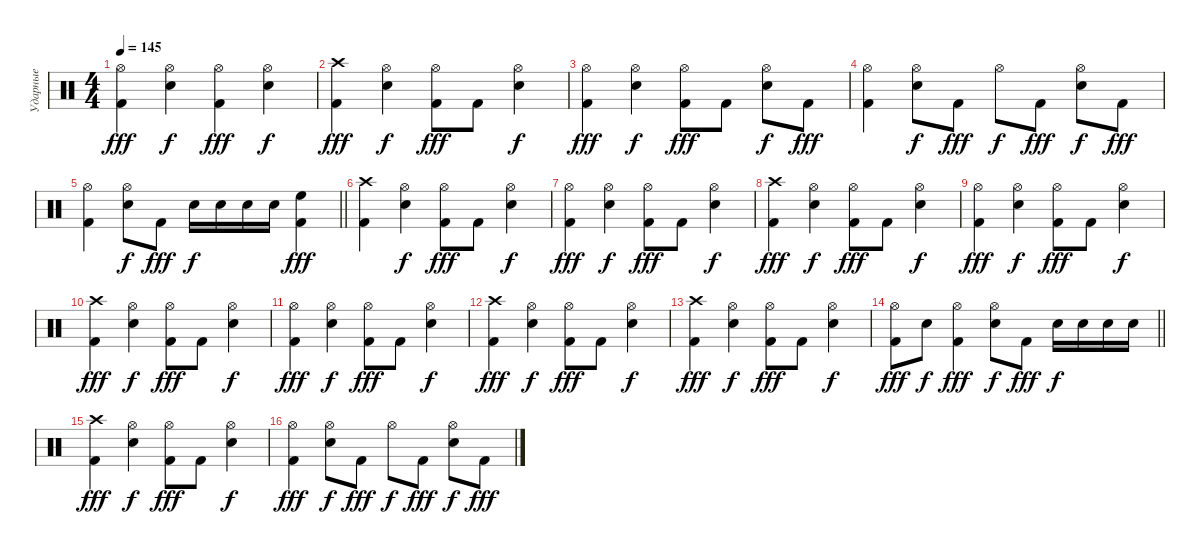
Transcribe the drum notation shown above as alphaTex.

\track ("Ударные" "Ударные") {instrument percussion}
\staff {score}
\articulation defaults
\ts (4 4)
\tempo 145
\clef neutral
\ks c
("Kick (hit) 2" "Hi-Hat (open)").4{dy fff} ("Snare (hit) 2" "Hi-Hat (open)").4{dy f} ("Kick (hit) 2" "Hi-Hat (open)").4{dy fff} ("Snare (hit) 2" "Hi-Hat (open)").4{dy f} |
("Kick (hit) 2" "Crash high (hit)").4{dy fff} ("Snare (hit) 2" "Hi-Hat (open)").4{dy f} ("Kick (hit) 2" "Hi-Hat (open)").8{dy fff} "Kick (hit) 2".8 ("Snare (hit) 2" "Hi-Hat (open)").4{dy f} |
("Kick (hit) 2" "Hi-Hat (open)").4{dy fff} ("Snare (hit) 2" "Hi-Hat (open)").4{dy f} ("Kick (hit) 2" "Hi-Hat (open)").8{dy fff} "Kick (hit) 2".8 ("Snare (hit) 2" "Hi-Hat (open)").8{dy f} "Kick (hit) 2".8{dy fff} |
("Kick (hit) 2" "Hi-Hat (open)").4 ("Snare (hit) 2" "Hi-Hat (open)").8{dy f} "Kick (hit) 2".8{dy fff} "Hi-Hat (open)".8{dy f} "Kick (hit) 2".8{dy fff} ("Snare (hit) 2" "Hi-Hat (open)").8{dy f} "Kick (hit) 2".8{dy fff} |
\barLineRight lightlight
("Kick (hit) 2" "Hi-Hat (open)").4 ("Snare (hit) 2" "Hi-Hat (open)").8{dy f} "Kick (hit) 2".8{dy fff} "Snare (hit) 2".16{dy f} "Snare (hit) 2".16 "Snare (hit) 2".16 "Snare (hit) 2".16 ("Kick (hit) 2" "High Floor Tom (hit)").4{dy fff} |
("Kick (hit) 2" "Crash high (hit)").4 ("Snare (hit) 2" "Hi-Hat (open)").4{dy f} ("Kick (hit) 2" "Hi-Hat (open)").8{dy fff} "Kick (hit) 2".8 ("Snare (hit) 2" "Hi-Hat (open)").4{dy f} |
("Kick (hit) 2" "Hi-Hat (open)").4{dy fff} ("Snare (hit) 2" "Hi-Hat (open)").4{dy f} ("Kick (hit) 2" "Hi-Hat (open)").8{dy fff} "Kick (hit) 2".8 ("Snare (hit) 2" "Hi-Hat (open)").4{dy f} |
("Kick (hit) 2" "Crash high (hit)").4{dy fff} ("Snare (hit) 2" "Hi-Hat (open)").4{dy f} ("Kick (hit) 2" "Hi-Hat (open)").8{dy fff} "Kick (hit) 2".8 ("Snare (hit) 2" "Hi-Hat (open)").4{dy f} |
("Kick (hit) 2" "Hi-Hat (open)").4{dy fff} ("Snare (hit) 2" "Hi-Hat (open)").4{dy f} ("Kick (hit) 2" "Hi-Hat (open)").8{dy fff} "Kick (hit) 2".8 ("Snare (hit) 2" "Hi-Hat (open)").4{dy f} |
("Kick (hit) 2" "Crash high (hit)").4{dy fff} ("Snare (hit) 2" "Hi-Hat (open)").4{dy f} ("Kick (hit) 2" "Hi-Hat (open)").8{dy fff} "Kick (hit) 2".8 ("Snare (hit) 2" "Hi-Hat (open)").4{dy f} |
("Kick (hit) 2" "Hi-Hat (open)").4{dy fff} ("Snare (hit) 2" "Hi-Hat (open)").4{dy f} ("Kick (hit) 2" "Hi-Hat (open)").8{dy fff} "Kick (hit) 2".8 ("Snare (hit) 2" "Hi-Hat (open)").4{dy f} |
("Kick (hit) 2" "Crash high (hit)").4{dy fff} ("Snare (hit) 2" "Hi-Hat (open)").4{dy f} ("Kick (hit) 2" "Hi-Hat (open)").8{dy fff} "Kick (hit) 2".8 ("Snare (hit) 2" "Hi-Hat (open)").4{dy f} |
("Kick (hit) 2" "Crash high (hit)").4{dy fff} ("Snare (hit) 2" "Hi-Hat (open)").4{dy f} ("Kick (hit) 2" "Hi-Hat (open)").8{dy fff} "Kick (hit) 2".8 ("Snare (hit) 2" "Hi-Hat (open)").4{dy f} |
\barLineRight lightlight
("Kick (hit) 2" "Hi-Hat (open)").8{dy fff} "Snare (hit) 2".8{dy f} ("Kick (hit) 2" "Hi-Hat (open)").4{dy fff} ("Snare (hit) 2" "Hi-Hat (open)").8{dy f} "Kick (hit) 2".8{dy fff} "Snare (hit) 2".16{dy f} "Snare (hit) 2".16 "Snare (hit) 2".16 "Snare (hit) 2".16 |
("Kick (hit) 2" "Crash high (hit)").4{dy fff} ("Snare (hit) 2" "Hi-Hat (open)").4{dy f} ("Kick (hit) 2" "Hi-Hat (open)").8{dy fff} "Kick (hit) 2".8 ("Snare (hit) 2" "Hi-Hat (open)").4{dy f} |
("Kick (hit) 2" "Hi-Hat (open)").4{dy fff} ("Snare (hit) 2" "Hi-Hat (open)").8{dy f} "Kick (hit) 2".8{dy fff} "Hi-Hat (open)".8{dy f} "Kick (hit) 2".8{dy fff} ("Snare (hit) 2" "Hi-Hat (open)").8{dy f} "Kick (hit) 2".8{dy fff}
